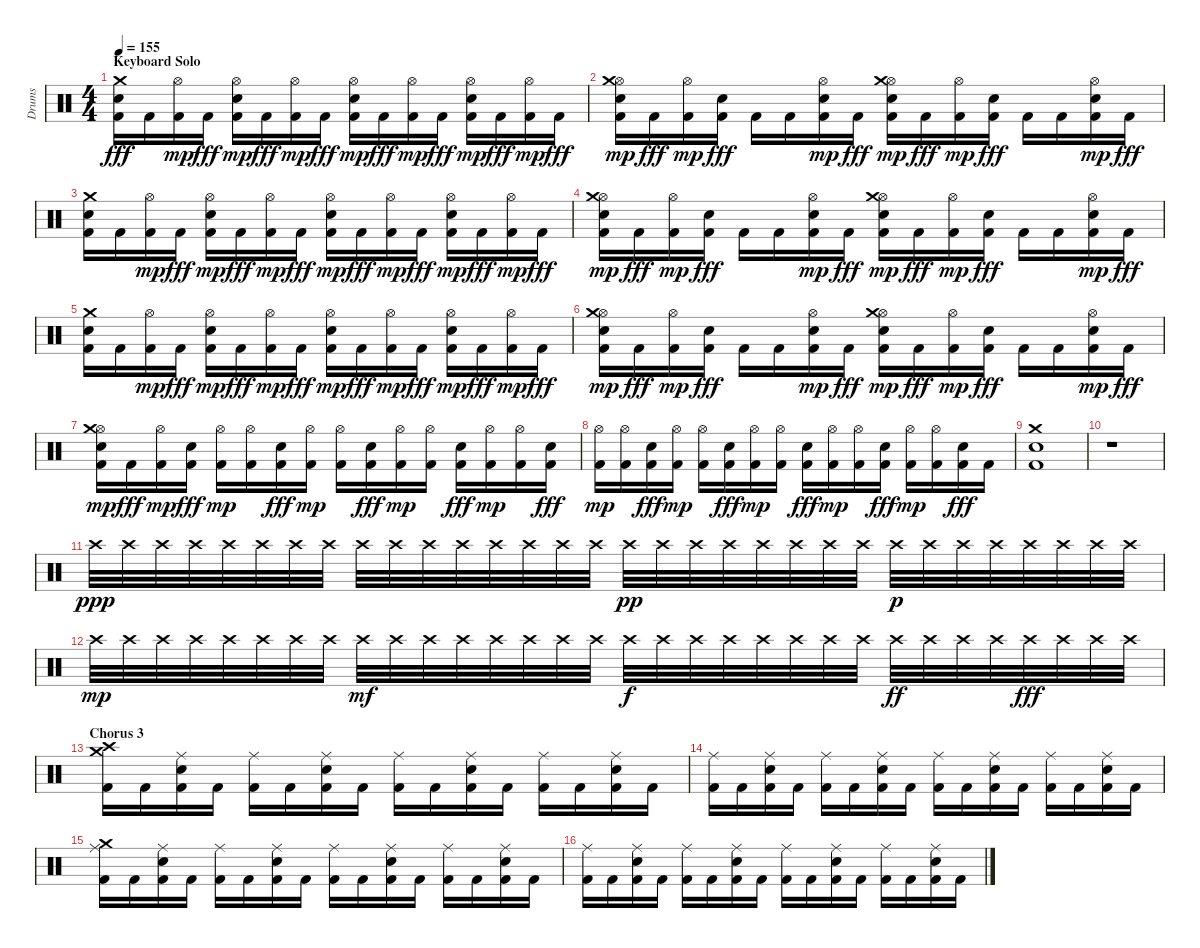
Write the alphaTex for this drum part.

\track ("Drums" "Drums") {instrument percussion}
\staff {score}
\articulation defaults
\ts (4 4)
\section ("" "Keyboard Solo")
\tempo 155
\clef neutral
\ks c
("Kick (hit) 2" "Snare (hit) 2" "Crash medium (hit)").16{dy fff} "Kick (hit) 2".16 ("Kick (hit) 2" "Hi-Hat (open)").16{dy mp} "Kick (hit) 2".16{dy fff} ("Kick (hit) 2" "Hi-Hat (open)" "Snare (hit) 2").16{dy mp} "Kick (hit) 2".16{dy fff} ("Kick (hit) 2" "Hi-Hat (open)").16{dy mp} "Kick (hit) 2".16{dy fff} ("Kick (hit) 2" "Hi-Hat (open)" "Snare (hit) 2").16{dy mp} "Kick (hit) 2".16{dy fff} ("Kick (hit) 2" "Hi-Hat (open)").16{dy mp} "Kick (hit) 2".16{dy fff} ("Kick (hit) 2" "Hi-Hat (open)" "Snare (hit) 2").16{dy mp} "Kick (hit) 2".16{dy fff} ("Kick (hit) 2" "Hi-Hat (open)").16{dy mp} "Kick (hit) 2".16{dy fff} |
("Kick (hit) 2" "Hi-Hat (open)" "Snare (hit) 2" "Crash medium (hit)").16{dy mp} "Kick (hit) 2".16{dy fff} ("Kick (hit) 2" "Hi-Hat (open)").16{dy mp} ("Kick (hit) 2" "Snare (hit) 2").16{dy fff} "Kick (hit) 2".16 "Kick (hit) 2".16 ("Kick (hit) 2" "Hi-Hat (open)" "Snare (hit) 2").16{dy mp} "Kick (hit) 2".16{dy fff} ("Kick (hit) 2" "Hi-Hat (open)" "Snare (hit) 2" "Crash medium (hit)").16{dy mp} "Kick (hit) 2".16{dy fff} ("Kick (hit) 2" "Hi-Hat (open)").16{dy mp} ("Kick (hit) 2" "Snare (hit) 2").16{dy fff} "Kick (hit) 2".16 "Kick (hit) 2".16 ("Kick (hit) 2" "Hi-Hat (open)" "Snare (hit) 2").16{dy mp} "Kick (hit) 2".16{dy fff} |
("Kick (hit) 2" "Snare (hit) 2" "Crash medium (hit)").16 "Kick (hit) 2".16 ("Kick (hit) 2" "Hi-Hat (open)").16{dy mp} "Kick (hit) 2".16{dy fff} ("Kick (hit) 2" "Hi-Hat (open)" "Snare (hit) 2").16{dy mp} "Kick (hit) 2".16{dy fff} ("Kick (hit) 2" "Hi-Hat (open)").16{dy mp} "Kick (hit) 2".16{dy fff} ("Kick (hit) 2" "Hi-Hat (open)" "Snare (hit) 2").16{dy mp} "Kick (hit) 2".16{dy fff} ("Kick (hit) 2" "Hi-Hat (open)").16{dy mp} "Kick (hit) 2".16{dy fff} ("Kick (hit) 2" "Hi-Hat (open)" "Snare (hit) 2").16{dy mp} "Kick (hit) 2".16{dy fff} ("Kick (hit) 2" "Hi-Hat (open)").16{dy mp} "Kick (hit) 2".16{dy fff} |
("Kick (hit) 2" "Hi-Hat (open)" "Snare (hit) 2" "Crash medium (hit)").16{dy mp} "Kick (hit) 2".16{dy fff} ("Kick (hit) 2" "Hi-Hat (open)").16{dy mp} ("Kick (hit) 2" "Snare (hit) 2").16{dy fff} "Kick (hit) 2".16 "Kick (hit) 2".16 ("Kick (hit) 2" "Hi-Hat (open)" "Snare (hit) 2").16{dy mp} "Kick (hit) 2".16{dy fff} ("Kick (hit) 2" "Hi-Hat (open)" "Snare (hit) 2" "Crash medium (hit)").16{dy mp} "Kick (hit) 2".16{dy fff} ("Kick (hit) 2" "Hi-Hat (open)").16{dy mp} ("Kick (hit) 2" "Snare (hit) 2").16{dy fff} "Kick (hit) 2".16 "Kick (hit) 2".16 ("Kick (hit) 2" "Hi-Hat (open)" "Snare (hit) 2").16{dy mp} "Kick (hit) 2".16{dy fff} |
("Kick (hit) 2" "Snare (hit) 2" "Crash medium (hit)").16 "Kick (hit) 2".16 ("Kick (hit) 2" "Hi-Hat (open)").16{dy mp} "Kick (hit) 2".16{dy fff} ("Kick (hit) 2" "Hi-Hat (open)" "Snare (hit) 2").16{dy mp} "Kick (hit) 2".16{dy fff} ("Kick (hit) 2" "Hi-Hat (open)").16{dy mp} "Kick (hit) 2".16{dy fff} ("Kick (hit) 2" "Hi-Hat (open)" "Snare (hit) 2").16{dy mp} "Kick (hit) 2".16{dy fff} ("Kick (hit) 2" "Hi-Hat (open)").16{dy mp} "Kick (hit) 2".16{dy fff} ("Kick (hit) 2" "Hi-Hat (open)" "Snare (hit) 2").16{dy mp} "Kick (hit) 2".16{dy fff} ("Kick (hit) 2" "Hi-Hat (open)").16{dy mp} "Kick (hit) 2".16{dy fff} |
("Kick (hit) 2" "Hi-Hat (open)" "Snare (hit) 2" "Crash medium (hit)").16{dy mp} "Kick (hit) 2".16{dy fff} ("Kick (hit) 2" "Hi-Hat (open)").16{dy mp} ("Kick (hit) 2" "Snare (hit) 2").16{dy fff} "Kick (hit) 2".16 "Kick (hit) 2".16 ("Kick (hit) 2" "Hi-Hat (open)" "Snare (hit) 2").16{dy mp} "Kick (hit) 2".16{dy fff} ("Kick (hit) 2" "Hi-Hat (open)" "Snare (hit) 2" "Crash medium (hit)").16{dy mp} "Kick (hit) 2".16{dy fff} ("Kick (hit) 2" "Hi-Hat (open)").16{dy mp} ("Kick (hit) 2" "Snare (hit) 2").16{dy fff} "Kick (hit) 2".16 "Kick (hit) 2".16 ("Kick (hit) 2" "Hi-Hat (open)" "Snare (hit) 2").16{dy mp} "Kick (hit) 2".16{dy fff} |
("Kick (hit) 2" "Hi-Hat (open)" "Snare (hit) 2" "Crash medium (hit)").16{dy mp} "Kick (hit) 2".16{dy fff} ("Kick (hit) 2" "Hi-Hat (open)").16{dy mp} ("Kick (hit) 2" "Snare (hit) 2").16{dy fff} ("Kick (hit) 2" "Hi-Hat (open)").16{dy mp} ("Kick (hit) 2" "Hi-Hat (open)").16 ("Kick (hit) 2" "Snare (hit) 2").16{dy fff} ("Kick (hit) 2" "Hi-Hat (open)").16{dy mp} ("Kick (hit) 2" "Hi-Hat (open)").16 ("Kick (hit) 2" "Snare (hit) 2").16{dy fff} ("Kick (hit) 2" "Hi-Hat (open)").16{dy mp} ("Kick (hit) 2" "Hi-Hat (open)").16 ("Kick (hit) 2" "Snare (hit) 2").16{dy fff} ("Kick (hit) 2" "Hi-Hat (open)").16{dy mp} ("Kick (hit) 2" "Hi-Hat (open)").16 ("Kick (hit) 2" "Snare (hit) 2").16{dy fff} |
("Kick (hit) 2" "Hi-Hat (open)").16{dy mp} ("Kick (hit) 2" "Hi-Hat (open)").16 ("Kick (hit) 2" "Snare (hit) 2").16{dy fff} ("Kick (hit) 2" "Hi-Hat (open)").16{dy mp} ("Kick (hit) 2" "Hi-Hat (open)").16 ("Kick (hit) 2" "Snare (hit) 2").16{dy fff} ("Kick (hit) 2" "Hi-Hat (open)").16{dy mp} ("Kick (hit) 2" "Hi-Hat (open)").16 ("Kick (hit) 2" "Snare (hit) 2").16{dy fff} ("Kick (hit) 2" "Hi-Hat (open)").16{dy mp} ("Kick (hit) 2" "Hi-Hat (open)").16 ("Kick (hit) 2" "Snare (hit) 2").16{dy fff} ("Kick (hit) 2" "Hi-Hat (open)").16{dy mp} ("Kick (hit) 2" "Hi-Hat (open)").16 ("Kick (hit) 2" "Snare (hit) 2").16{dy fff} "Kick (hit) 2".16 |
("Kick (hit) 2" "Snare (hit) 2" "Crash medium (hit)").1 |
r.1 |
"Crash high (hit)".32{dy ppp} "Crash high (hit)".32 "Crash high (hit)".32 "Crash high (hit)".32 "Crash high (hit)".32 "Crash high (hit)".32 "Crash high (hit)".32 "Crash high (hit)".32 "Crash high (hit)".32 "Crash high (hit)".32 "Crash high (hit)".32 "Crash high (hit)".32 "Crash high (hit)".32 "Crash high (hit)".32 "Crash high (hit)".32 "Crash high (hit)".32 "Crash high (hit)".32{dy pp} "Crash high (hit)".32 "Crash high (hit)".32 "Crash high (hit)".32 "Crash high (hit)".32 "Crash high (hit)".32 "Crash high (hit)".32 "Crash high (hit)".32 "Crash high (hit)".32{dy p} "Crash high (hit)".32 "Crash high (hit)".32 "Crash high (hit)".32 "Crash high (hit)".32 "Crash high (hit)".32 "Crash high (hit)".32 "Crash high (hit)".32 |
"Crash high (hit)".32{dy mp} "Crash high (hit)".32 "Crash high (hit)".32 "Crash high (hit)".32 "Crash high (hit)".32 "Crash high (hit)".32 "Crash high (hit)".32 "Crash high (hit)".32 "Crash high (hit)".32{dy mf} "Crash high (hit)".32 "Crash high (hit)".32 "Crash high (hit)".32 "Crash high (hit)".32 "Crash high (hit)".32 "Crash high (hit)".32 "Crash high (hit)".32 "Crash high (hit)".32{dy f} "Crash high (hit)".32 "Crash high (hit)".32 "Crash high (hit)".32 "Crash high (hit)".32 "Crash high (hit)".32 "Crash high (hit)".32 "Crash high (hit)".32 "Crash high (hit)".32{dy ff} "Crash high (hit)".32 "Crash high (hit)".32 "Crash high (hit)".32 "Crash high (hit)".32{dy fff} "Crash high (hit)".32 "Crash high (hit)".32 "Crash high (hit)".32 |
\section ("" "Chorus 3")
("Kick (hit) 2" "Crash high (hit)" "Crash medium (hit)").16 "Kick (hit) 2".16 ("Kick (hit) 2" "Ride (middle)" "Snare (hit) 2").16 "Kick (hit) 2".16 ("Kick (hit) 2" "Ride (middle)").16 "Kick (hit) 2".16 ("Kick (hit) 2" "Ride (middle)" "Snare (hit) 2").16 "Kick (hit) 2".16 ("Kick (hit) 2" "Ride (middle)").16 "Kick (hit) 2".16 ("Kick (hit) 2" "Ride (middle)" "Snare (hit) 2").16 "Kick (hit) 2".16 ("Kick (hit) 2" "Ride (middle)").16 "Kick (hit) 2".16 ("Kick (hit) 2" "Ride (middle)" "Snare (hit) 2").16 "Kick (hit) 2".16 |
("Kick (hit) 2" "Ride (middle)").16 "Kick (hit) 2".16 ("Kick (hit) 2" "Ride (middle)" "Snare (hit) 2").16 "Kick (hit) 2".16 ("Kick (hit) 2" "Ride (middle)").16 "Kick (hit) 2".16 ("Kick (hit) 2" "Ride (middle)" "Snare (hit) 2").16 "Kick (hit) 2".16 ("Kick (hit) 2" "Ride (middle)").16 "Kick (hit) 2".16 ("Kick (hit) 2" "Ride (middle)" "Snare (hit) 2").16 "Kick (hit) 2".16 ("Kick (hit) 2" "Ride (middle)").16 "Kick (hit) 2".16 ("Kick (hit) 2" "Ride (middle)" "Snare (hit) 2").16 "Kick (hit) 2".16 |
("Kick (hit) 2" "Ride (middle)" "Crash medium (hit)").16 "Kick (hit) 2".16 ("Kick (hit) 2" "Ride (middle)" "Snare (hit) 2").16 "Kick (hit) 2".16 ("Kick (hit) 2" "Ride (middle)").16 "Kick (hit) 2".16 ("Kick (hit) 2" "Ride (middle)" "Snare (hit) 2").16 "Kick (hit) 2".16 ("Kick (hit) 2" "Ride (middle)").16 "Kick (hit) 2".16 ("Kick (hit) 2" "Ride (middle)" "Snare (hit) 2").16 "Kick (hit) 2".16 ("Kick (hit) 2" "Ride (middle)").16 "Kick (hit) 2".16 ("Kick (hit) 2" "Ride (middle)" "Snare (hit) 2").16 "Kick (hit) 2".16 |
("Kick (hit) 2" "Ride (middle)").16 "Kick (hit) 2".16 ("Kick (hit) 2" "Ride (middle)" "Snare (hit) 2").16 "Kick (hit) 2".16 ("Kick (hit) 2" "Ride (middle)").16 "Kick (hit) 2".16 ("Kick (hit) 2" "Ride (middle)" "Snare (hit) 2").16 "Kick (hit) 2".16 ("Kick (hit) 2" "Ride (middle)").16 "Kick (hit) 2".16 ("Kick (hit) 2" "Ride (middle)" "Snare (hit) 2").16 "Kick (hit) 2".16 ("Kick (hit) 2" "Ride (middle)").16 "Kick (hit) 2".16 ("Kick (hit) 2" "Ride (middle)" "Snare (hit) 2").16 "Kick (hit) 2".16
